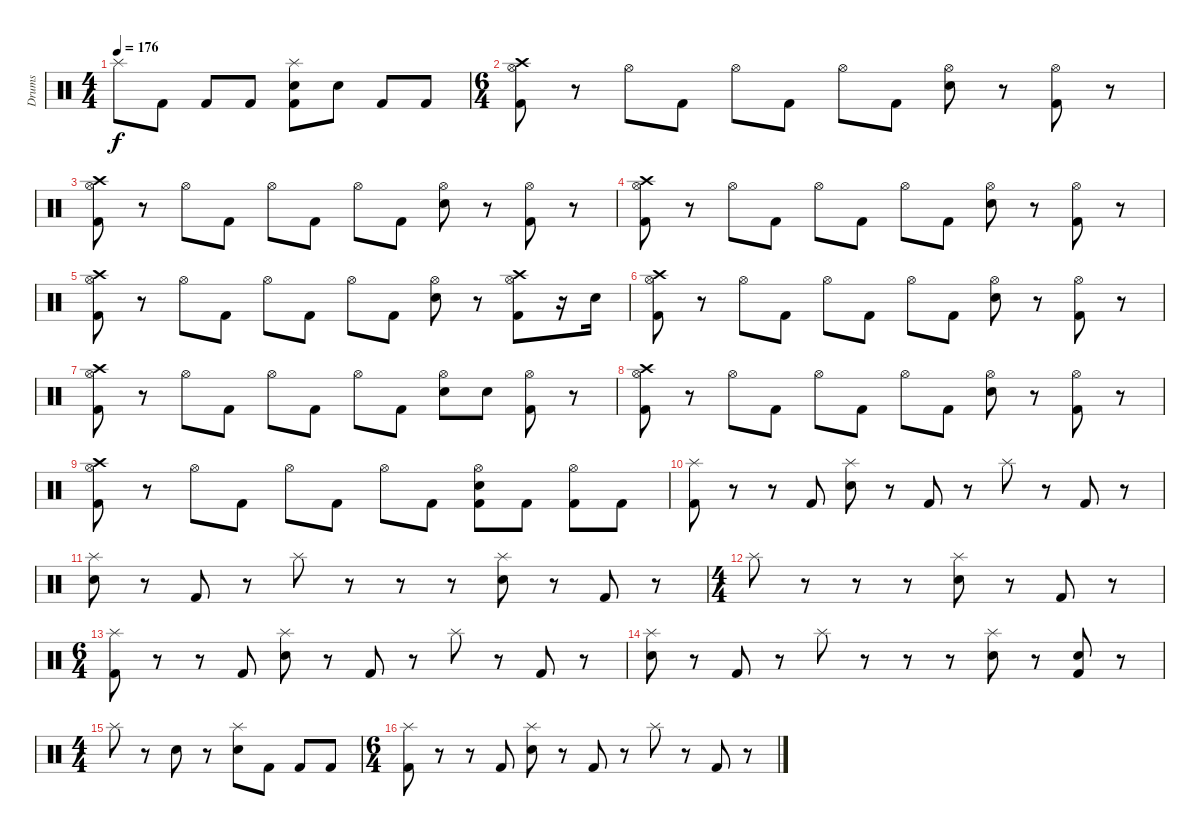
\track ("Drums" "Drums") {instrument percussion}
\staff {score}
\articulation defaults
\ts (4 4)
\tempo 176
\clef neutral
\ks c "Splash (hit)".8{dy f} "Kick (hit) 2".8 "Kick (hit) 2".8 "Kick (hit) 2".8
("Splash (hit)" "Electric Snare (hit)" "Kick (hit) 2").8 "Electric Snare (hit)".8 "Kick (hit) 2".8 "Kick (hit) 2".8 |
\ts (6 4)
("Crash high (hit)" "Hi-Hat (open)" "Kick (hit) 2").8 r.8 "Hi-Hat (open)".8 "Kick (hit) 2".8 "Hi-Hat (open)".8 "Kick (hit) 2".8 "Hi-Hat (open)".8 "Kick (hit) 2".8 ("Electric Snare (hit)" "Hi-Hat (open)").8 r.8 ("Hi-Hat (open)" "Kick (hit) 2").8 r.8 |
("Crash high (hit)" "Hi-Hat (open)" "Kick (hit) 2").8 r.8 "Hi-Hat (open)".8 "Kick (hit) 2".8 "Hi-Hat (open)".8 "Kick (hit) 2".8 "Hi-Hat (open)".8 "Kick (hit) 2".8 ("Electric Snare (hit)" "Hi-Hat (open)").8 r.8 ("Hi-Hat (open)" "Kick (hit) 2").8 r.8 |
("Crash high (hit)" "Hi-Hat (open)" "Kick (hit) 2").8 r.8 "Hi-Hat (open)".8 "Kick (hit) 2".8 "Hi-Hat (open)".8 "Kick (hit) 2".8 "Hi-Hat (open)".8 "Kick (hit) 2".8 ("Electric Snare (hit)" "Hi-Hat (open)").8 r.8 ("Hi-Hat (open)" "Kick (hit) 2").8 r.8 |
("Crash high (hit)" "Hi-Hat (open)" "Kick (hit) 2").8 r.8 "Hi-Hat (open)".8 "Kick (hit) 2".8 "Hi-Hat (open)".8 "Kick (hit) 2".8 "Hi-Hat (open)".8 "Kick (hit) 2".8 ("Electric Snare (hit)" "Hi-Hat (open)").8 r.8 ("Crash high (hit)" "Hi-Hat (open)" "Kick (hit) 2").8 r.16 "Electric Snare (hit)".16 |
("Crash high (hit)" "Hi-Hat (open)" "Kick (hit) 2").8 r.8 "Hi-Hat (open)".8 "Kick (hit) 2".8 "Hi-Hat (open)".8 "Kick (hit) 2".8 "Hi-Hat (open)".8 "Kick (hit) 2".8 ("Electric Snare (hit)" "Hi-Hat (open)").8 r.8 ("Hi-Hat (open)" "Kick (hit) 2").8 r.8 |
("Crash high (hit)" "Hi-Hat (open)" "Kick (hit) 2").8 r.8 "Hi-Hat (open)".8 "Kick (hit) 2".8 "Hi-Hat (open)".8 "Kick (hit) 2".8 "Hi-Hat (open)".8 "Kick (hit) 2".8 ("Electric Snare (hit)" "Hi-Hat (open)").8 "Electric Snare (hit)".8 ("Hi-Hat (open)" "Kick (hit) 2").8 r.8 |
("Crash high (hit)" "Hi-Hat (open)" "Kick (hit) 2").8 r.8 "Hi-Hat (open)".8 "Kick (hit) 2".8 "Hi-Hat (open)".8 "Kick (hit) 2".8 "Hi-Hat (open)".8 "Kick (hit) 2".8 ("Electric Snare (hit)" "Hi-Hat (open)").8 r.8 ("Hi-Hat (open)" "Kick (hit) 2").8 r.8 |
("Crash high (hit)" "Hi-Hat (open)" "Kick (hit) 2").8 r.8 "Hi-Hat (open)".8 "Kick (hit) 2".8 "Hi-Hat (open)".8 "Kick (hit) 2".8 "Hi-Hat (open)".8 "Kick (hit) 2".8 ("Electric Snare (hit)" "Hi-Hat (open)" "Kick (hit) 2").8 "Kick (hit) 2".8 ("Hi-Hat (open)" "Kick (hit) 2").8 "Kick (hit) 2".8 |
("Splash (hit)" "Kick (hit) 2").8 r.8 r.8 "Kick (hit) 2".8 ("Electric Snare (hit)" "Splash (hit)").8 r.8 "Kick (hit) 2".8 r.8 "Splash (hit)".8 r.8 "Kick (hit) 2".8 r.8 |
("Electric Snare (hit)" "Splash (hit)").8 r.8 "Kick (hit) 2".8 r.8 "Splash (hit)".8 r.8 r.8 r.8 ("Electric Snare (hit)" "Splash (hit)").8 r.8 "Kick (hit) 2".8 r.8 |
\ts (4 4)
"Splash (hit)".8 r.8 r.8 r.8 ("Electric Snare (hit)" "Splash (hit)").8 r.8 "Kick (hit) 2".8 r.8 |
\ts (6 4)
("Splash (hit)" "Kick (hit) 2").8 r.8 r.8 "Kick (hit) 2".8 ("Electric Snare (hit)" "Splash (hit)").8 r.8 "Kick (hit) 2".8 r.8 "Splash (hit)".8 r.8 "Kick (hit) 2".8 r.8 |
("Electric Snare (hit)" "Splash (hit)").8 r.8 "Kick (hit) 2".8 r.8 "Splash (hit)".8 r.8 r.8 r.8 ("Electric Snare (hit)" "Splash (hit)").8 r.8 ("Electric Snare (hit)" "Kick (hit) 2").8 r.8 |
\ts (4 4)
"Splash (hit)".8 r.8 "Electric Snare (hit)".8 r.8 ("Electric Snare (hit)" "Splash (hit)").8 "Kick (hit) 2".8 "Kick (hit) 2".8 "Kick (hit) 2".8 |
\ts (6 4)
("Splash (hit)" "Kick (hit) 2").8 r.8 r.8 "Kick (hit) 2".8 ("Electric Snare (hit)" "Splash (hit)").8 r.8 "Kick (hit) 2".8 r.8 "Splash (hit)".8 r.8 "Kick (hit) 2".8 r.8
